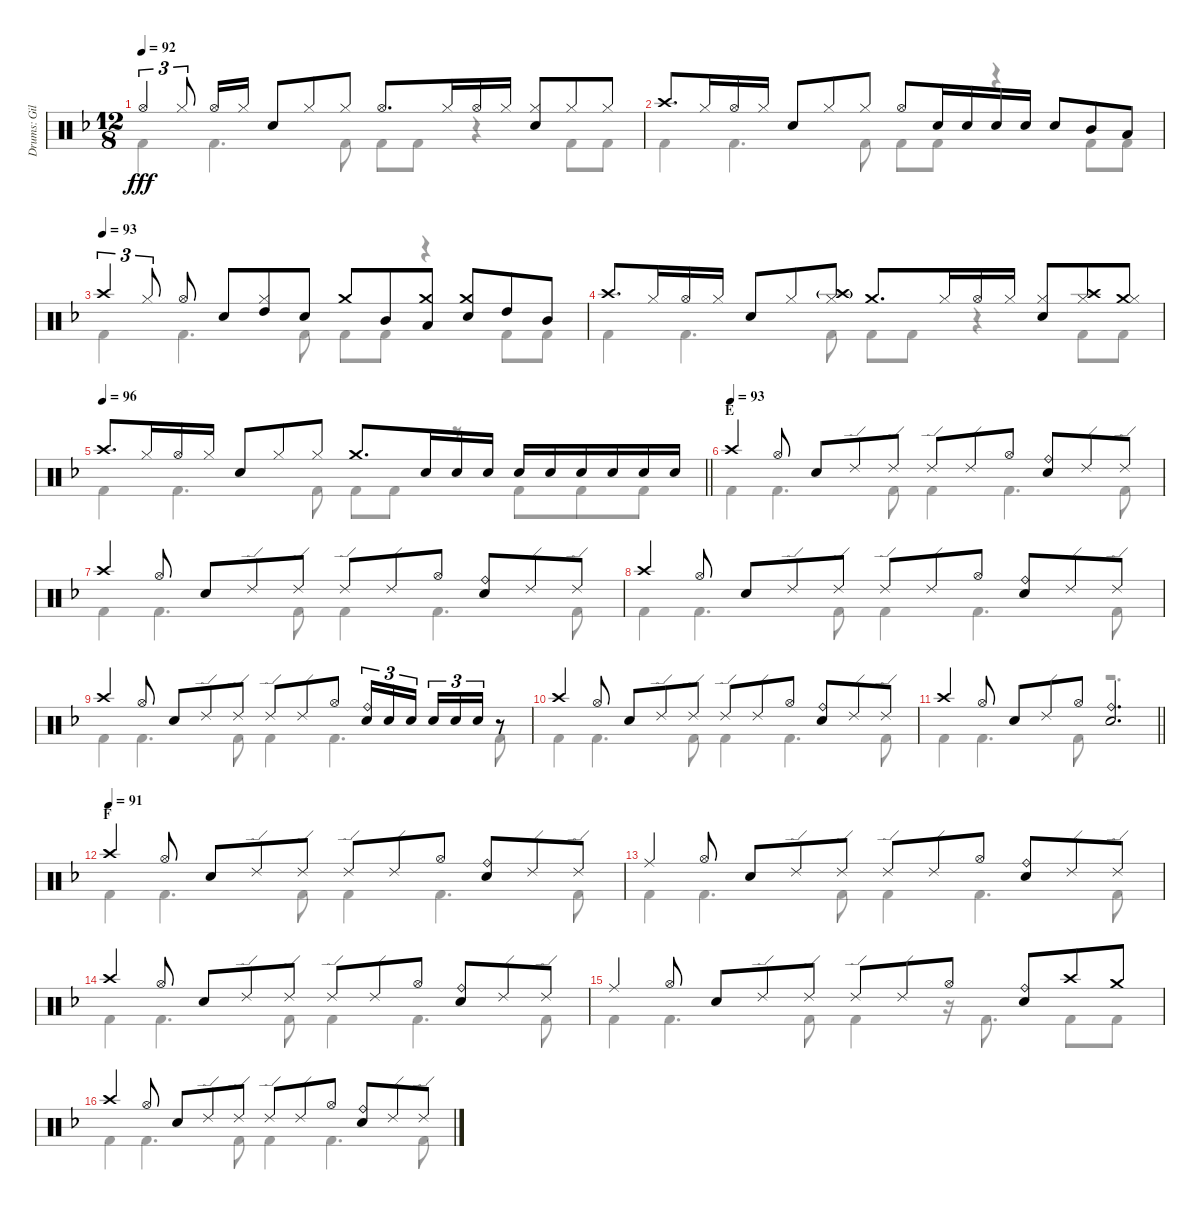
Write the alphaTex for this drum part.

\track ("Drums: Gil" "Drums: Gil") {instrument percussion}
\staff {score}
\articulation defaults
\voice
\ts (12 8)
\tempo 92
\clef neutral
\ks f "Hi-Hat (open)".4{tu (3 2) dy fff} "Hi-Hat (closed)".8{tu (3 2)} "Hi-Hat (open)".16 "Hi-Hat (closed)".16 "Snare (hit) 2".8 "Hi-Hat (closed)".8 "Hi-Hat (closed)".8 "Hi-Hat (open)".8{d} "Hi-Hat (closed)".16 "Hi-Hat (open)".16 "Hi-Hat (closed)".16
("Hi-Hat (closed)" "Snare (hit) 2").8 "Hi-Hat (closed)".8 "Hi-Hat (closed)".8 |
"Crash high (hit)".8{d} "Hi-Hat (closed)".16 "Hi-Hat (open)".16 "Hi-Hat (closed)".16 "Snare (hit) 2".8 "Hi-Hat (closed)".8 "Hi-Hat (closed)".8 "Hi-Hat (open)".8 "Snare (hit) 2".16 "Snare (hit) 2".16 "Snare (hit) 2".16 "Snare (hit) 2".16 "Snare (hit) 2".8 "Mid Tom (hit)".8 "Low Tom (hit)".8 |
\tempo (93)
"Crash high (hit)".4{tu (3 2)} "Hi-Hat (closed)".8{tu (3 2)} "Hi-Hat (open)".8 "Snare (hit) 2".8 ("Hi-Hat (closed)" "High Tom (hit)").8 "Snare (hit) 2".8 "Crash medium (hit)".8 "Mid Tom (hit)".8 ("Crash medium (hit)" "Low Tom (hit)").8 ("Crash medium (hit)" "Snare (hit) 2").8 "High Tom (hit)".8 "Mid Tom (hit)".8 |
"Crash high (hit)".8{d} "Hi-Hat (closed)".16 "Hi-Hat (open)".16 "Hi-Hat (closed)".16 "Snare (hit) 2".8 "Hi-Hat (closed)".8 ("Crash high (hit)"{g} "Hi-Hat (closed)").8 "Crash medium (hit)".8{d} "Hi-Hat (closed)".16 "Hi-Hat (open)".16 "Hi-Hat (closed)".16 ("Hi-Hat (closed)" "Snare (hit) 2").8 ("Crash high (hit)" "Hi-Hat (closed)").8 ("Crash medium (hit)" "Hi-Hat (closed)").8 |
\tempo 96
\barLineRight lightlight "Crash high (hit)".8{d} "Hi-Hat (closed)".16 "Hi-Hat (open)".16 "Hi-Hat (closed)".16 "Snare (hit) 2".8 "Hi-Hat (closed)".8 "Hi-Hat (closed)".8 "Crash medium (hit)".8{d} "Snare (hit) 2".16 "Snare (hit) 2".16 "Snare (hit) 2".16 "Snare (hit) 2".16 "Snare (hit) 2".16 "Snare (hit) 2".16 "Snare (hit) 2".16 "Snare (hit) 2".16 "Snare (hit) 2".16
|
\section ("" "E")
\tempo (93)
"Crash high (hit)".4 "Hi-Hat (open)".8 "Snare (hit) 2".8 "Ride (edge) 2".8 "Ride (edge) 2".8 "Ride (edge) 2".8 "Ride (edge) 2".8 "Hi-Hat (open)".8 ("Ride (bell)" "Snare (hit) 2").8 "Ride (edge) 2".8 "Ride (edge) 2".8 |
"Crash high (hit)".4 "Hi-Hat (open)".8 "Snare (hit) 2".8 "Ride (edge) 2".8 "Ride (edge) 2".8 "Ride (edge) 2".8 "Ride (edge) 2".8 "Hi-Hat (open)".8 ("Ride (bell)" "Snare (hit) 2").8 "Ride (edge) 2".8 "Ride (edge) 2".8 |
"Crash high (hit)".4 "Hi-Hat (open)".8 "Snare (hit) 2".8 "Ride (edge) 2".8 "Ride (edge) 2".8 "Ride (edge) 2".8 "Ride (edge) 2".8 "Hi-Hat (open)".8 ("Ride (bell)" "Snare (hit) 2").8 "Ride (edge) 2".8 "Ride (edge) 2".8 |
"Crash high (hit)".4 "Hi-Hat (open)".8 "Snare (hit) 2".8 "Ride (edge) 2".8 "Ride (edge) 2".8 "Ride (edge) 2".8 "Ride (edge) 2".8 "Hi-Hat (open)".8 ("Ride (bell)" "Snare (hit) 2").16{tu (3 2)} "Snare (hit) 2".16{tu (3 2)} "Snare (hit) 2".16{tu (3 2) beam splitsecondary} "Snare (hit) 2".16{tu (3 2)} "Snare (hit) 2".16{tu (3 2)} "Snare (hit) 2".16{tu (3 2)} r.8 |
"Crash high (hit)".4 "Hi-Hat (open)".8 "Snare (hit) 2".8 "Ride (edge) 2".8 "Ride (edge) 2".8 "Ride (edge) 2".8 "Ride (edge) 2".8 "Hi-Hat (open)".8 ("Ride (bell)" "Snare (hit) 2").8 "Ride (edge) 2".8 "Ride (edge) 2".8 |
\barLineRight lightlight "Crash high (hit)".4 "Hi-Hat (open)".8 "Snare (hit) 2".8 "Ride (edge) 2".8 "Hi-Hat (open)".8
("Ride (bell)" "Snare (hit) 2").2{d} |
\section ("" "F")
\tempo (91)
"Crash high (hit)".4 "Hi-Hat (open)".8 "Snare (hit) 2".8 "Ride (edge) 2".8 "Ride (edge) 2".8 "Ride (edge) 2".8 "Ride (edge) 2".8 "Hi-Hat (open)".8 ("Ride (bell)" "Snare (hit) 2").8 "Ride (edge) 2".8 "Ride (edge) 2".8 |
"Ride (middle)".4 "Hi-Hat (open)".8 "Snare (hit) 2".8 "Ride (edge) 2".8 "Ride (edge) 2".8 "Ride (edge) 2".8 "Ride (edge) 2".8 "Hi-Hat (open)".8 ("Ride (bell)" "Snare (hit) 2").8 "Ride (edge) 2".8 "Ride (edge) 2".8 |
"Crash high (hit)".4 "Hi-Hat (open)".8 "Snare (hit) 2".8 "Ride (edge) 2".8 "Ride (edge) 2".8 "Ride (edge) 2".8 "Ride (edge) 2".8 "Hi-Hat (open)".8 ("Ride (bell)" "Snare (hit) 2").8 "Ride (edge) 2".8 "Ride (edge) 2".8 |
"Ride (middle)".4 "Hi-Hat (open)".8 "Snare (hit) 2".8 "Ride (edge) 2".8 "Ride (edge) 2".8 "Ride (edge) 2".8 "Ride (edge) 2".8 "Hi-Hat (open)".8 ("Ride (bell)" "Snare (hit) 2").8 "Crash high (hit)".8 "Crash medium (hit)".8 |
"Crash high (hit)".4 "Hi-Hat (open)".8 "Snare (hit) 2".8 "Ride (edge) 2".8 "Ride (edge) 2".8 "Ride (edge) 2".8 "Ride (edge) 2".8 "Hi-Hat (open)".8 ("Ride (bell)" "Snare (hit) 2").8 "Ride (edge) 2".8 "Ride (edge) 2".8
\voice
\clef neutral
\ottava regular
\simile none
\ks f "Kick (hit) 2".4{dy fff} "Kick (hit) 2".4{d} "Kick (hit) 2".8 "Kick (hit) 2".8 "Kick (hit) 2".8
r.4 "Kick (hit) 2".8 "Kick (hit) 2".8 |
"Kick (hit) 2".4 "Kick (hit) 2".4{d} "Kick (hit) 2".8 "Kick (hit) 2".8 "Kick (hit) 2".8 r.4 "Kick (hit) 2".8 "Kick (hit) 2".8 |
"Kick (hit) 2".4 "Kick (hit) 2".4{d} "Kick (hit) 2".8 "Kick (hit) 2".8 "Kick (hit) 2".8 r.4 "Kick (hit) 2".8 "Kick (hit) 2".8 |
"Kick (hit) 2".4 "Kick (hit) 2".4{d} "Kick (hit) 2".8 "Kick (hit) 2".8 "Kick (hit) 2".8 r.4 "Kick (hit) 2".8 "Kick (hit) 2".8 |
\barLineRight lightlight "Kick (hit) 2".4 "Kick (hit) 2".4{d} "Kick (hit) 2".8 "Kick (hit) 2".8 "Kick (hit) 2".8
r.8 "Kick (hit) 2".8 "Kick (hit) 2".8 "Kick (hit) 2".8 |
"Kick (hit) 2".4 "Kick (hit) 2".4{d} "Kick (hit) 2".8 "Kick (hit) 2".4 "Kick (hit) 2".4{d} "Kick (hit) 2".8 |
"Kick (hit) 2".4 "Kick (hit) 2".4{d} "Kick (hit) 2".8 "Kick (hit) 2".4 "Kick (hit) 2".4{d} "Kick (hit) 2".8 |
"Kick (hit) 2".4 "Kick (hit) 2".4{d} "Kick (hit) 2".8 "Kick (hit) 2".4 "Kick (hit) 2".4{d} "Kick (hit) 2".8 |
"Kick (hit) 2".4 "Kick (hit) 2".4{d} "Kick (hit) 2".8 "Kick (hit) 2".4 "Kick (hit) 2".4{d} "Kick (hit) 2".8 |
"Kick (hit) 2".4 "Kick (hit) 2".4{d} "Kick (hit) 2".8 "Kick (hit) 2".4 "Kick (hit) 2".4{d} "Kick (hit) 2".8 |
\barLineRight lightlight "Kick (hit) 2".4 "Kick (hit) 2".4{d} "Kick (hit) 2".8
r.2{d} |
"Kick (hit) 2".4 "Kick (hit) 2".4{d} "Kick (hit) 2".8 "Kick (hit) 2".4 "Kick (hit) 2".4{d} "Kick (hit) 2".8 |
"Kick (hit) 2".4 "Kick (hit) 2".4{d} "Kick (hit) 2".8 "Kick (hit) 2".4 "Kick (hit) 2".4{d} "Kick (hit) 2".8 |
"Kick (hit) 2".4 "Kick (hit) 2".4{d} "Kick (hit) 2".8 "Kick (hit) 2".4 "Kick (hit) 2".4{d} "Kick (hit) 2".8 |
"Kick (hit) 2".4 "Kick (hit) 2".4{d} "Kick (hit) 2".8 "Kick (hit) 2".4 r.16 "Kick (hit) 2".8{d} "Kick (hit) 2".8 "Kick (hit) 2".8 |
"Kick (hit) 2".4 "Kick (hit) 2".4{d} "Kick (hit) 2".8 "Kick (hit) 2".4 "Kick (hit) 2".4{d} "Kick (hit) 2".8
